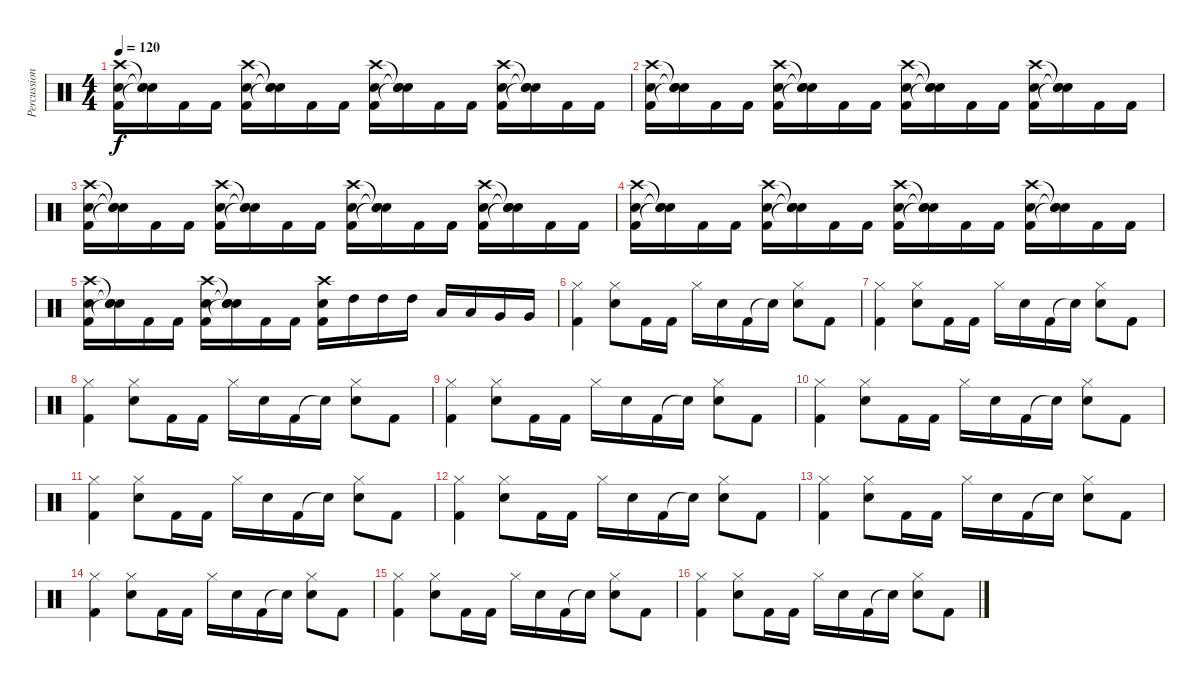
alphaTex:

\track ("Percussions" "Percussion") {instrument percussion}
\staff {score}
\articulation defaults
\ts (4 4)
\tempo 120
\clef neutral
\ks c
("Kick (hit) 2" "Electric Snare (hit)" "Crash high (hit)").16{dy f} ("Snare (hit)"{t} "Snare (hit)"{t} "Snare (hit)"{t}).16 "Kick (hit) 2".16 "Kick (hit) 2".16 ("Kick (hit) 2" "Electric Snare (hit)" "Crash high (hit)").16 ("Snare (hit)"{t} "Snare (hit)"{t} "Snare (hit)"{t}).16 "Kick (hit) 2".16 "Kick (hit) 2".16 ("Kick (hit) 2" "Electric Snare (hit)" "Crash high (hit)").16 ("Snare (hit)"{t} "Snare (hit)"{t} "Snare (hit)"{t}).16 "Kick (hit) 2".16 "Kick (hit) 2".16 ("Kick (hit) 2" "Electric Snare (hit)" "Crash high (hit)").16 ("Snare (hit)"{t} "Snare (hit)"{t} "Snare (hit)"{t}).16 "Kick (hit) 2".16 "Kick (hit) 2".16 |
("Kick (hit) 2" "Electric Snare (hit)" "Crash high (hit)").16 ("Snare (hit)"{t} "Snare (hit)"{t} "Snare (hit)"{t}).16 "Kick (hit) 2".16 "Kick (hit) 2".16 ("Kick (hit) 2" "Electric Snare (hit)" "Crash high (hit)").16 ("Snare (hit)"{t} "Snare (hit)"{t} "Snare (hit)"{t}).16 "Kick (hit) 2".16 "Kick (hit) 2".16 ("Kick (hit) 2" "Electric Snare (hit)" "Crash high (hit)").16 ("Snare (hit)"{t} "Snare (hit)"{t} "Snare (hit)"{t}).16 "Kick (hit) 2".16 "Kick (hit) 2".16 ("Kick (hit) 2" "Electric Snare (hit)" "Crash high (hit)").16 ("Snare (hit)"{t} "Snare (hit)"{t} "Snare (hit)"{t}).16 "Kick (hit) 2".16 "Kick (hit) 2".16 |
("Kick (hit) 2" "Electric Snare (hit)" "Crash high (hit)").16 ("Snare (hit)"{t} "Snare (hit)"{t} "Snare (hit)"{t}).16 "Kick (hit) 2".16 "Kick (hit) 2".16 ("Kick (hit) 2" "Electric Snare (hit)" "Crash high (hit)").16 ("Snare (hit)"{t} "Snare (hit)"{t} "Snare (hit)"{t}).16 "Kick (hit) 2".16 "Kick (hit) 2".16 ("Kick (hit) 2" "Electric Snare (hit)" "Crash high (hit)").16 ("Snare (hit)"{t} "Snare (hit)"{t} "Snare (hit)"{t}).16 "Kick (hit) 2".16 "Kick (hit) 2".16 ("Kick (hit) 2" "Electric Snare (hit)" "Crash high (hit)").16 ("Snare (hit)"{t} "Snare (hit)"{t} "Snare (hit)"{t}).16 "Kick (hit) 2".16 "Kick (hit) 2".16 |
("Kick (hit) 2" "Electric Snare (hit)" "Crash high (hit)").16 ("Snare (hit)"{t} "Snare (hit)"{t} "Snare (hit)"{t}).16 "Kick (hit) 2".16 "Kick (hit) 2".16 ("Kick (hit) 2" "Electric Snare (hit)" "Crash high (hit)").16 ("Snare (hit)"{t} "Snare (hit)"{t} "Snare (hit)"{t}).16 "Kick (hit) 2".16 "Kick (hit) 2".16 ("Kick (hit) 2" "Electric Snare (hit)" "Crash high (hit)").16 ("Snare (hit)"{t} "Snare (hit)"{t} "Snare (hit)"{t}).16 "Kick (hit) 2".16 "Kick (hit) 2".16 ("Kick (hit) 2" "Electric Snare (hit)" "Crash high (hit)").16 ("Snare (hit)"{t} "Snare (hit)"{t} "Snare (hit)"{t}).16 "Kick (hit) 2".16 "Kick (hit) 2".16 |
("Kick (hit) 2" "Electric Snare (hit)" "Crash high (hit)").16 ("Snare (hit)"{t} "Snare (hit)"{t} "Snare (hit)"{t}).16 "Kick (hit) 2".16 "Kick (hit) 2".16 ("Kick (hit) 2" "Electric Snare (hit)" "Crash high (hit)").16 ("Snare (hit)"{t} "Snare (hit)"{t} "Snare (hit)"{t}).16 "Kick (hit) 2".16 "Kick (hit) 2".16 ("Kick (hit) 2" "Electric Snare (hit)" "Crash high (hit)").16 "High Tom (hit)".16 "High Tom (hit)".16 "High Tom (hit)".16 "Low Tom (hit)".16 "Low Tom (hit)".16 "Very Low Tom (hit)".16 "Very Low Tom (hit)".16 |
("Kick (hit) 2" "Hi-Hat (closed)").4 ("Electric Snare (hit)" "Hi-Hat (closed)").8 "Kick (hit) 2".16 "Kick (hit) 2".16 "Hi-Hat (closed)".16 "Electric Snare (hit)".16 "Kick (hit) 2".16 "Snare (hit)"{t}.16 ("Electric Snare (hit)" "Hi-Hat (closed)").8 "Kick (hit) 2".8 |
("Kick (hit) 2" "Hi-Hat (closed)").4 ("Electric Snare (hit)" "Hi-Hat (closed)").8 "Kick (hit) 2".16 "Kick (hit) 2".16 "Hi-Hat (closed)".16 "Electric Snare (hit)".16 "Kick (hit) 2".16 "Snare (hit)"{t}.16 ("Electric Snare (hit)" "Hi-Hat (closed)").8 "Kick (hit) 2".8 |
("Kick (hit) 2" "Hi-Hat (closed)").4 ("Electric Snare (hit)" "Hi-Hat (closed)").8 "Kick (hit) 2".16 "Kick (hit) 2".16 "Hi-Hat (closed)".16 "Electric Snare (hit)".16 "Kick (hit) 2".16 "Snare (hit)"{t}.16 ("Electric Snare (hit)" "Hi-Hat (closed)").8 "Kick (hit) 2".8 |
("Kick (hit) 2" "Hi-Hat (closed)").4 ("Electric Snare (hit)" "Hi-Hat (closed)").8 "Kick (hit) 2".16 "Kick (hit) 2".16 "Hi-Hat (closed)".16 "Electric Snare (hit)".16 "Kick (hit) 2".16 "Snare (hit)"{t}.16 ("Electric Snare (hit)" "Hi-Hat (closed)").8 "Kick (hit) 2".8 |
("Kick (hit) 2" "Hi-Hat (closed)").4 ("Electric Snare (hit)" "Hi-Hat (closed)").8 "Kick (hit) 2".16 "Kick (hit) 2".16 "Hi-Hat (closed)".16 "Electric Snare (hit)".16 "Kick (hit) 2".16 "Snare (hit)"{t}.16 ("Electric Snare (hit)" "Hi-Hat (closed)").8 "Kick (hit) 2".8 |
("Kick (hit) 2" "Hi-Hat (closed)").4 ("Electric Snare (hit)" "Hi-Hat (closed)").8 "Kick (hit) 2".16 "Kick (hit) 2".16 "Hi-Hat (closed)".16 "Electric Snare (hit)".16 "Kick (hit) 2".16 "Snare (hit)"{t}.16 ("Electric Snare (hit)" "Hi-Hat (closed)").8 "Kick (hit) 2".8 |
("Kick (hit) 2" "Hi-Hat (closed)").4 ("Electric Snare (hit)" "Hi-Hat (closed)").8 "Kick (hit) 2".16 "Kick (hit) 2".16 "Hi-Hat (closed)".16 "Electric Snare (hit)".16 "Kick (hit) 2".16 "Snare (hit)"{t}.16 ("Electric Snare (hit)" "Hi-Hat (closed)").8 "Kick (hit) 2".8 |
("Kick (hit) 2" "Hi-Hat (closed)").4 ("Electric Snare (hit)" "Hi-Hat (closed)").8 "Kick (hit) 2".16 "Kick (hit) 2".16 "Hi-Hat (closed)".16 "Electric Snare (hit)".16 "Kick (hit) 2".16 "Snare (hit)"{t}.16 ("Electric Snare (hit)" "Hi-Hat (closed)").8 "Kick (hit) 2".8 |
("Kick (hit) 2" "Hi-Hat (closed)").4 ("Electric Snare (hit)" "Hi-Hat (closed)").8 "Kick (hit) 2".16 "Kick (hit) 2".16 "Hi-Hat (closed)".16 "Electric Snare (hit)".16 "Kick (hit) 2".16 "Snare (hit)"{t}.16 ("Electric Snare (hit)" "Hi-Hat (closed)").8 "Kick (hit) 2".8 |
("Kick (hit) 2" "Hi-Hat (closed)").4 ("Electric Snare (hit)" "Hi-Hat (closed)").8 "Kick (hit) 2".16 "Kick (hit) 2".16 "Hi-Hat (closed)".16 "Electric Snare (hit)".16 "Kick (hit) 2".16 "Snare (hit)"{t}.16 ("Electric Snare (hit)" "Hi-Hat (closed)").8 "Kick (hit) 2".8 |
("Kick (hit) 2" "Hi-Hat (closed)").4 ("Electric Snare (hit)" "Hi-Hat (closed)").8 "Kick (hit) 2".16 "Kick (hit) 2".16 "Hi-Hat (closed)".16 "Electric Snare (hit)".16 "Kick (hit) 2".16 "Snare (hit)"{t}.16 ("Electric Snare (hit)" "Hi-Hat (closed)").8 "Kick (hit) 2".8
